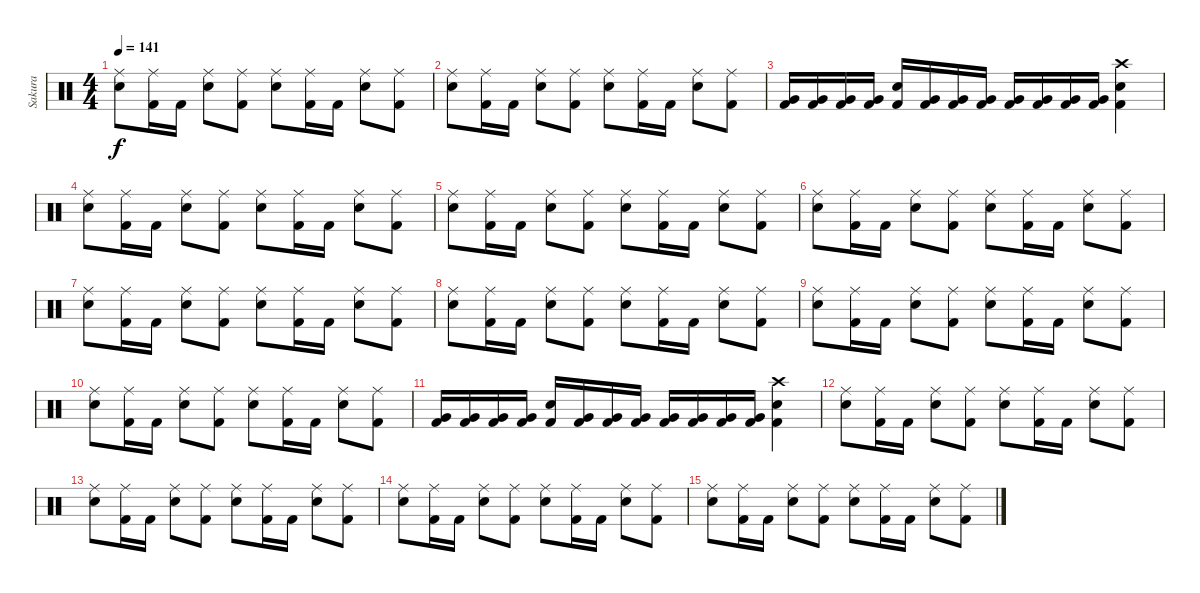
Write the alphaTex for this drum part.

\track ("Sakura" "Sakura") {instrument percussion}
\staff {score}
\articulation defaults
\ts (4 4)
\tempo 141
\clef neutral
\ks c
("Ride (middle)" "Snare (hit) 2").8{dy f} ("Ride (middle)" "Kick (hit) 2").16 "Kick (hit) 2".16 ("Ride (middle)" "Snare (hit) 2").8 ("Ride (middle)" "Kick (hit) 2").8 ("Ride (middle)" "Snare (hit) 2").8 ("Ride (middle)" "Kick (hit) 2").16 "Kick (hit) 2".16 ("Ride (middle)" "Snare (hit) 2").8 ("Ride (middle)" "Kick (hit) 2").8 |
("Ride (middle)" "Snare (hit) 2").8 ("Ride (middle)" "Kick (hit) 2").16 "Kick (hit) 2".16 ("Ride (middle)" "Snare (hit) 2").8 ("Ride (middle)" "Kick (hit) 2").8 ("Ride (middle)" "Snare (hit) 2").8 ("Ride (middle)" "Kick (hit) 2").16 "Kick (hit) 2".16 ("Ride (middle)" "Snare (hit) 2").8 ("Ride (middle)" "Kick (hit) 2").8 |
("Very Low Tom (hit)" "Kick (hit) 2").16 ("Very Low Tom (hit)" "Kick (hit) 2").16 ("Very Low Tom (hit)" "Kick (hit) 2").16 ("Very Low Tom (hit)" "Kick (hit) 2").16 ("Snare (hit) 2" "Kick (hit) 2").16 ("Very Low Tom (hit)" "Kick (hit) 2").16 ("Very Low Tom (hit)" "Kick (hit) 2").16 ("Very Low Tom (hit)" "Kick (hit) 2").16 ("Very Low Tom (hit)" "Kick (hit) 2").16 ("Very Low Tom (hit)" "Kick (hit) 2").16 ("Very Low Tom (hit)" "Kick (hit) 2").16 ("Very Low Tom (hit)" "Kick (hit) 2").16 ("Crash high (hit)" "Snare (hit) 2" "Kick (hit) 2").4 |
("Ride (middle)" "Snare (hit) 2").8 ("Ride (middle)" "Kick (hit) 2").16 "Kick (hit) 2".16 ("Ride (middle)" "Snare (hit) 2").8 ("Ride (middle)" "Kick (hit) 2").8 ("Ride (middle)" "Snare (hit) 2").8 ("Ride (middle)" "Kick (hit) 2").16 "Kick (hit) 2".16 ("Ride (middle)" "Snare (hit) 2").8 ("Ride (middle)" "Kick (hit) 2").8 |
("Ride (middle)" "Snare (hit) 2").8 ("Ride (middle)" "Kick (hit) 2").16 "Kick (hit) 2".16 ("Ride (middle)" "Snare (hit) 2").8 ("Ride (middle)" "Kick (hit) 2").8 ("Ride (middle)" "Snare (hit) 2").8 ("Ride (middle)" "Kick (hit) 2").16 "Kick (hit) 2".16 ("Ride (middle)" "Snare (hit) 2").8 ("Ride (middle)" "Kick (hit) 2").8 |
("Ride (middle)" "Snare (hit) 2").8 ("Ride (middle)" "Kick (hit) 2").16 "Kick (hit) 2".16 ("Ride (middle)" "Snare (hit) 2").8 ("Ride (middle)" "Kick (hit) 2").8 ("Ride (middle)" "Snare (hit) 2").8 ("Ride (middle)" "Kick (hit) 2").16 "Kick (hit) 2".16 ("Ride (middle)" "Snare (hit) 2").8 ("Ride (middle)" "Kick (hit) 2").8 |
("Ride (middle)" "Snare (hit) 2").8 ("Ride (middle)" "Kick (hit) 2").16 "Kick (hit) 2".16 ("Ride (middle)" "Snare (hit) 2").8 ("Ride (middle)" "Kick (hit) 2").8 ("Ride (middle)" "Snare (hit) 2").8 ("Ride (middle)" "Kick (hit) 2").16 "Kick (hit) 2".16 ("Ride (middle)" "Snare (hit) 2").8 ("Ride (middle)" "Kick (hit) 2").8 |
("Ride (middle)" "Snare (hit) 2").8 ("Ride (middle)" "Kick (hit) 2").16 "Kick (hit) 2".16 ("Ride (middle)" "Snare (hit) 2").8 ("Ride (middle)" "Kick (hit) 2").8 ("Ride (middle)" "Snare (hit) 2").8 ("Ride (middle)" "Kick (hit) 2").16 "Kick (hit) 2".16 ("Ride (middle)" "Snare (hit) 2").8 ("Ride (middle)" "Kick (hit) 2").8 |
("Ride (middle)" "Snare (hit) 2").8 ("Ride (middle)" "Kick (hit) 2").16 "Kick (hit) 2".16 ("Ride (middle)" "Snare (hit) 2").8 ("Ride (middle)" "Kick (hit) 2").8 ("Ride (middle)" "Snare (hit) 2").8 ("Ride (middle)" "Kick (hit) 2").16 "Kick (hit) 2".16 ("Ride (middle)" "Snare (hit) 2").8 ("Ride (middle)" "Kick (hit) 2").8 |
("Ride (middle)" "Snare (hit) 2").8 ("Ride (middle)" "Kick (hit) 2").16 "Kick (hit) 2".16 ("Ride (middle)" "Snare (hit) 2").8 ("Ride (middle)" "Kick (hit) 2").8 ("Ride (middle)" "Snare (hit) 2").8 ("Ride (middle)" "Kick (hit) 2").16 "Kick (hit) 2".16 ("Ride (middle)" "Snare (hit) 2").8 ("Ride (middle)" "Kick (hit) 2").8 |
("Very Low Tom (hit)" "Kick (hit) 2").16 ("Very Low Tom (hit)" "Kick (hit) 2").16 ("Very Low Tom (hit)" "Kick (hit) 2").16 ("Very Low Tom (hit)" "Kick (hit) 2").16 ("Snare (hit) 2" "Kick (hit) 2").16 ("Very Low Tom (hit)" "Kick (hit) 2").16 ("Very Low Tom (hit)" "Kick (hit) 2").16 ("Very Low Tom (hit)" "Kick (hit) 2").16 ("Very Low Tom (hit)" "Kick (hit) 2").16 ("Very Low Tom (hit)" "Kick (hit) 2").16 ("Very Low Tom (hit)" "Kick (hit) 2").16 ("Very Low Tom (hit)" "Kick (hit) 2").16 ("Crash high (hit)" "Snare (hit) 2" "Kick (hit) 2").4 |
("Ride (middle)" "Snare (hit) 2").8 ("Ride (middle)" "Kick (hit) 2").16 "Kick (hit) 2".16 ("Ride (middle)" "Snare (hit) 2").8 ("Ride (middle)" "Kick (hit) 2").8 ("Ride (middle)" "Snare (hit) 2").8 ("Ride (middle)" "Kick (hit) 2").16 "Kick (hit) 2".16 ("Ride (middle)" "Snare (hit) 2").8 ("Ride (middle)" "Kick (hit) 2").8 |
("Ride (middle)" "Snare (hit) 2").8 ("Ride (middle)" "Kick (hit) 2").16 "Kick (hit) 2".16 ("Ride (middle)" "Snare (hit) 2").8 ("Ride (middle)" "Kick (hit) 2").8 ("Ride (middle)" "Snare (hit) 2").8 ("Ride (middle)" "Kick (hit) 2").16 "Kick (hit) 2".16 ("Ride (middle)" "Snare (hit) 2").8 ("Ride (middle)" "Kick (hit) 2").8 |
("Ride (middle)" "Snare (hit) 2").8 ("Ride (middle)" "Kick (hit) 2").16 "Kick (hit) 2".16 ("Ride (middle)" "Snare (hit) 2").8 ("Ride (middle)" "Kick (hit) 2").8 ("Ride (middle)" "Snare (hit) 2").8 ("Ride (middle)" "Kick (hit) 2").16 "Kick (hit) 2".16 ("Ride (middle)" "Snare (hit) 2").8 ("Ride (middle)" "Kick (hit) 2").8 |
("Ride (middle)" "Snare (hit) 2").8 ("Ride (middle)" "Kick (hit) 2").16 "Kick (hit) 2".16 ("Ride (middle)" "Snare (hit) 2").8 ("Ride (middle)" "Kick (hit) 2").8 ("Ride (middle)" "Snare (hit) 2").8 ("Ride (middle)" "Kick (hit) 2").16 "Kick (hit) 2".16 ("Ride (middle)" "Snare (hit) 2").8 ("Ride (middle)" "Kick (hit) 2").8
